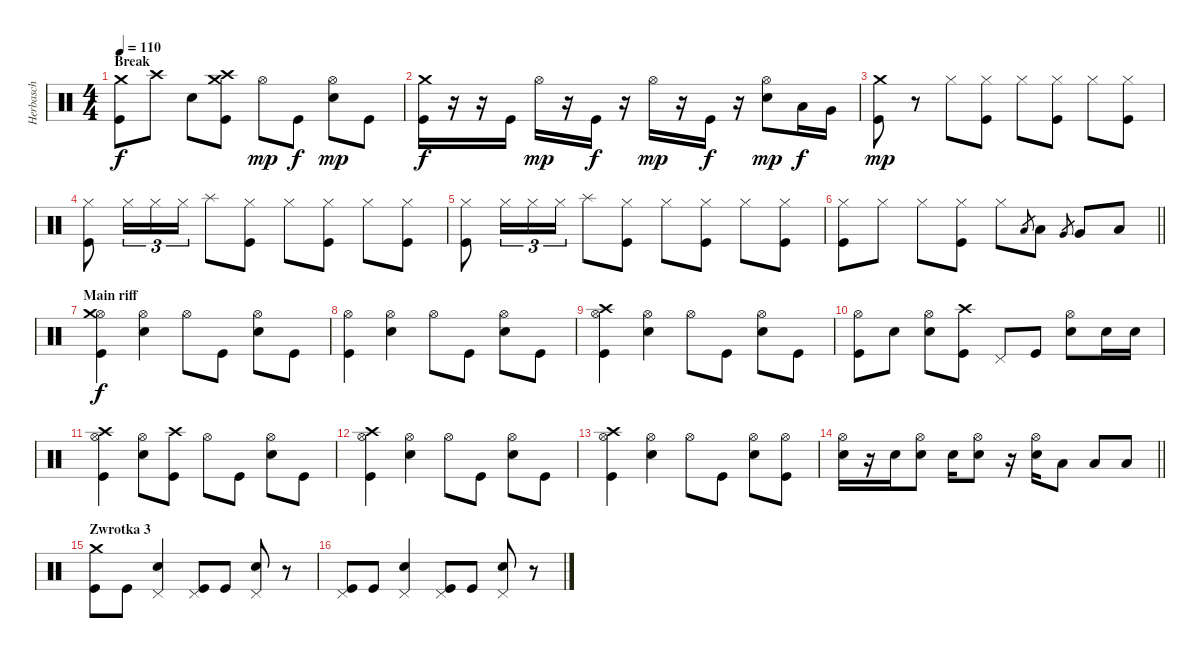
\track ("Herbasch" "Herbasch") {instrument percussion}
\staff {score}
\articulation defaults
\ts (4 4)
\section ("" "Break")
\tempo 110
\clef neutral
\ks c
("Crash medium (hit)" "Kick (hit)").8{dy f} "Crash high (hit)".8 "Electric Snare (hit)".8 ("Crash medium (hit)" "Kick (hit)" "Crash high (hit)").8 "Hi-Hat (open)".8{dy mp} "Kick (hit)".8{dy f} ("Hi-Hat (open)" "Electric Snare (hit)").8{dy mp} "Kick (hit)".8 |
("Crash medium (hit)" "Kick (hit)").16{dy f} r.16 r.16 "Kick (hit)".16 "Hi-Hat (open)".16{dy mp} r.16 "Kick (hit)".16{dy f} r.16 "Hi-Hat (open)".16{dy mp} r.16 "Kick (hit)".16{dy f} r.16 ("Hi-Hat (open)" "Electric Snare (hit)").8{dy mp} "Low Tom (hit)".16{dy f} "Very Low Tom (hit)".16 |
("Crash medium (hit)" "Kick (hit)").8{dy mp} r.8 "Hi-Hat (closed)".8 ("Hi-Hat (closed)" "Kick (hit)").8 "Hi-Hat (closed)".8 ("Hi-Hat (closed)" "Kick (hit)").8 "Hi-Hat (closed)".8 ("Hi-Hat (closed)" "Kick (hit)").8 |
("Hi-Hat (closed)" "Kick (hit)").8 "Hi-Hat (closed)".16{tu (3 2)} "Hi-Hat (closed)".16{tu (3 2)} "Hi-Hat (closed)".16{tu (3 2)} "Splash (hit)".8 ("Hi-Hat (closed)" "Kick (hit)").8 "Hi-Hat (closed)".8 ("Hi-Hat (closed)" "Kick (hit)").8 "Hi-Hat (closed)".8 ("Hi-Hat (closed)" "Kick (hit)").8 |
("Hi-Hat (closed)" "Kick (hit)").8 "Hi-Hat (closed)".16{tu (3 2)} "Hi-Hat (closed)".16{tu (3 2)} "Hi-Hat (closed)".16{tu (3 2)} "Splash (hit)".8 ("Hi-Hat (closed)" "Kick (hit)").8 "Hi-Hat (closed)".8 ("Hi-Hat (closed)" "Kick (hit)").8 "Hi-Hat (closed)".8 ("Hi-Hat (closed)" "Kick (hit)").8 |
\barLineRight lightlight
("Hi-Hat (closed)" "Kick (hit)").8 "Hi-Hat (closed)".8 "Hi-Hat (closed)".8 ("Hi-Hat (closed)" "Kick (hit)").8 "Hi-Hat (closed)".8 "Low Tom (hit)".8{gr} "Low Tom (hit)".8 "Very Low Tom (hit)".8{gr} "Very Low Tom (hit)".8 "Low Floor Tom (hit)".8 |
\section ("" "Main riff")
("Hi-Hat (open)" "Kick (hit)" "Crash medium (hit)").4{dy f} ("Hi-Hat (open)" "Electric Snare (hit)").4 "Hi-Hat (open)".8 "Kick (hit)".8 ("Hi-Hat (open)" "Electric Snare (hit)").8 "Kick (hit)".8 |
("Hi-Hat (open)" "Kick (hit)").4 ("Hi-Hat (open)" "Electric Snare (hit)").4 "Hi-Hat (open)".8 "Kick (hit)".8 ("Hi-Hat (open)" "Electric Snare (hit)").8 "Kick (hit)".8 |
("Hi-Hat (open)" "Kick (hit)" "Crash high (hit)").4 ("Hi-Hat (open)" "Electric Snare (hit)").4 "Hi-Hat (open)".8 "Kick (hit)".8 ("Hi-Hat (open)" "Electric Snare (hit)").8 "Kick (hit)".8 |
("Hi-Hat (open)" "Kick (hit)").8 "Electric Snare (hit)".8 ("Hi-Hat (open)" "Electric Snare (hit)").8 ("Kick (hit)" "Crash high (hit)").8 "Pedal Hi-Hat (hit)".8 "Kick (hit)".8 ("Hi-Hat (open)" "Electric Snare (hit)").8 "Electric Snare (hit)".16 "Electric Snare (hit)".16 |
("Hi-Hat (open)" "Kick (hit)" "Crash high (hit)").4 ("Hi-Hat (open)" "Electric Snare (hit)").8 ("Kick (hit)" "Crash high (hit)").8 "Hi-Hat (open)".8 "Kick (hit)".8 ("Hi-Hat (open)" "Electric Snare (hit)").8 "Kick (hit)".8 |
("Hi-Hat (open)" "Kick (hit)" "Crash high (hit)").4 ("Hi-Hat (open)" "Electric Snare (hit)").4 "Hi-Hat (open)".8 "Kick (hit)".8 ("Hi-Hat (open)" "Electric Snare (hit)").8 "Kick (hit)".8 |
("Hi-Hat (open)" "Kick (hit)" "Crash high (hit)").4 ("Hi-Hat (open)" "Electric Snare (hit)").4 "Hi-Hat (open)".8 "Kick (hit)".8 ("Hi-Hat (open)" "Electric Snare (hit)").8 ("Hi-Hat (open)" "Kick (hit)").8 |
\barLineRight lightlight
("Hi-Hat (open)" "Electric Snare (hit)").16 r.16 "Electric Snare (hit)".16 ("Hi-Hat (open)" "Electric Snare (hit)").8 "Electric Snare (hit)".16 ("Hi-Hat (open)" "Electric Snare (hit)").8 r.16 ("Hi-Hat (open)" "Electric Snare (hit)").16 "Low Tom (hit)".8 "Low Floor Tom (hit)".8 "Low Floor Tom (hit)".8 |
\section ("" "Zwrotka 3")
("Kick (hit)" "Crash medium (hit)").8 "Kick (hit)".8 ("Pedal Hi-Hat (hit)" "Electric Snare (hit)").4 ("Pedal Hi-Hat (hit)" "Kick (hit)").8 "Kick (hit)".8 ("Pedal Hi-Hat (hit)" "Electric Snare (hit)").8 r.8 |
("Pedal Hi-Hat (hit)" "Kick (hit)").8 "Kick (hit)".8 ("Pedal Hi-Hat (hit)" "Electric Snare (hit)").4 ("Pedal Hi-Hat (hit)" "Kick (hit)").8 "Kick (hit)".8 ("Pedal Hi-Hat (hit)" "Electric Snare (hit)").8 r.8
